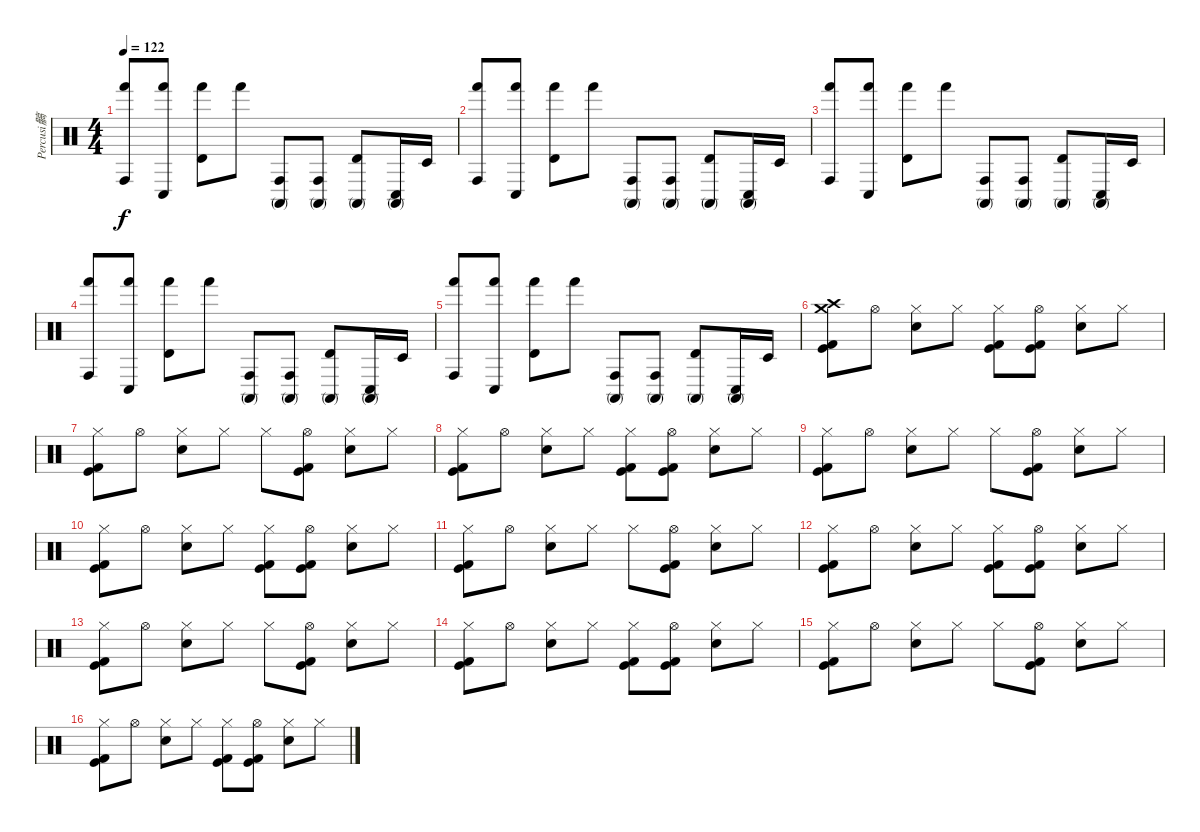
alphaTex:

\track ("Percusi髇" "Percusi髇") {instrument percussion}
\staff {score}
\articulation defaults
\ts (4 4)
\tempo 122
\clef neutral
\ks c
("Hand (hit)" "Conga high (hit)").8{dy f} ("Hand (hit)" "Conga low (hit)").8 ("Hand (hit)" "Timbale high (hit)").8 "Hand (hit)".8 ("Conga high (mute)" "Conga high (hit)").8 ("Conga high (mute)" "Conga high (hit)").8 ("Conga high (mute)" "Timbale high (hit)").8 ("Conga high (mute)" "Conga low (hit)").16 "Timbale low (hit)".16 |
("Hand (hit)" "Conga high (hit)").8 ("Hand (hit)" "Conga low (hit)").8 ("Hand (hit)" "Timbale high (hit)").8 "Hand (hit)".8 ("Conga high (mute)" "Conga high (hit)").8 ("Conga high (mute)" "Conga high (hit)").8 ("Conga high (mute)" "Timbale high (hit)").8 ("Conga high (mute)" "Conga low (hit)").16 "Timbale low (hit)".16 |
("Hand (hit)" "Conga high (hit)").8 ("Hand (hit)" "Conga low (hit)").8 ("Hand (hit)" "Timbale high (hit)").8 "Hand (hit)".8 ("Conga high (mute)" "Conga high (hit)").8 ("Conga high (mute)" "Conga high (hit)").8 ("Conga high (mute)" "Timbale high (hit)").8 ("Conga high (mute)" "Conga low (hit)").16 "Timbale low (hit)".16 |
("Hand (hit)" "Conga high (hit)").8 ("Hand (hit)" "Conga low (hit)").8 ("Hand (hit)" "Timbale high (hit)").8 "Hand (hit)".8 ("Conga high (mute)" "Conga high (hit)").8 ("Conga high (mute)" "Conga high (hit)").8 ("Conga high (mute)" "Timbale high (hit)").8 ("Conga high (mute)" "Conga low (hit)").16 "Timbale low (hit)".16 |
("Hand (hit)" "Conga high (hit)").8 ("Hand (hit)" "Conga low (hit)").8 ("Hand (hit)" "Timbale high (hit)").8 "Hand (hit)".8 ("Conga high (mute)" "Conga high (hit)").8 ("Conga high (mute)" "Conga high (hit)").8 ("Conga high (mute)" "Timbale high (hit)").8 ("Conga high (mute)" "Conga low (hit)").16 "Timbale low (hit)".16 |
("Crash high (hit)" "Crash medium (hit)" "Kick (hit) 2" "Kick (hit)").8{volume 14} "Hi-Hat (open)".8 ("Hi-Hat (closed)" "Electric Snare (hit)").8 "Hi-Hat (closed)".8 ("Hi-Hat (closed)" "Kick (hit) 2" "Kick (hit)").8 ("Hi-Hat (open)" "Kick (hit) 2" "Kick (hit)").8 ("Hi-Hat (closed)" "Electric Snare (hit)").8 "Hi-Hat (closed)".8 |
("Hi-Hat (closed)" "Kick (hit) 2" "Kick (hit)").8 "Hi-Hat (open)".8 ("Hi-Hat (closed)" "Electric Snare (hit)").8 "Hi-Hat (closed)".8 "Hi-Hat (closed)".8 ("Hi-Hat (open)" "Kick (hit) 2" "Kick (hit)").8 ("Hi-Hat (closed)" "Electric Snare (hit)").8 "Hi-Hat (closed)".8 |
("Hi-Hat (closed)" "Kick (hit) 2" "Kick (hit)").8 "Hi-Hat (open)".8 ("Hi-Hat (closed)" "Electric Snare (hit)").8 "Hi-Hat (closed)".8 ("Hi-Hat (closed)" "Kick (hit) 2" "Kick (hit)").8 ("Hi-Hat (open)" "Kick (hit) 2" "Kick (hit)").8 ("Hi-Hat (closed)" "Electric Snare (hit)").8 "Hi-Hat (closed)".8 |
("Hi-Hat (closed)" "Kick (hit) 2" "Kick (hit)").8 "Hi-Hat (open)".8 ("Hi-Hat (closed)" "Electric Snare (hit)").8 "Hi-Hat (closed)".8 "Hi-Hat (closed)".8 ("Hi-Hat (open)" "Kick (hit) 2" "Kick (hit)").8 ("Hi-Hat (closed)" "Electric Snare (hit)").8 "Hi-Hat (closed)".8 |
("Hi-Hat (closed)" "Kick (hit) 2" "Kick (hit)").8 "Hi-Hat (open)".8 ("Hi-Hat (closed)" "Electric Snare (hit)").8 "Hi-Hat (closed)".8 ("Hi-Hat (closed)" "Kick (hit) 2" "Kick (hit)").8 ("Hi-Hat (open)" "Kick (hit) 2" "Kick (hit)").8 ("Hi-Hat (closed)" "Electric Snare (hit)").8 "Hi-Hat (closed)".8 |
("Hi-Hat (closed)" "Kick (hit) 2" "Kick (hit)").8 "Hi-Hat (open)".8 ("Hi-Hat (closed)" "Electric Snare (hit)").8 "Hi-Hat (closed)".8 "Hi-Hat (closed)".8 ("Hi-Hat (open)" "Kick (hit) 2" "Kick (hit)").8 ("Hi-Hat (closed)" "Electric Snare (hit)").8 "Hi-Hat (closed)".8 |
("Hi-Hat (closed)" "Kick (hit) 2" "Kick (hit)").8 "Hi-Hat (open)".8 ("Hi-Hat (closed)" "Electric Snare (hit)").8 "Hi-Hat (closed)".8 ("Hi-Hat (closed)" "Kick (hit) 2" "Kick (hit)").8 ("Hi-Hat (open)" "Kick (hit) 2" "Kick (hit)").8 ("Hi-Hat (closed)" "Electric Snare (hit)").8 "Hi-Hat (closed)".8 |
("Hi-Hat (closed)" "Kick (hit) 2" "Kick (hit)").8 "Hi-Hat (open)".8 ("Hi-Hat (closed)" "Electric Snare (hit)").8 "Hi-Hat (closed)".8 "Hi-Hat (closed)".8 ("Hi-Hat (open)" "Kick (hit) 2" "Kick (hit)").8 ("Hi-Hat (closed)" "Electric Snare (hit)").8 "Hi-Hat (closed)".8 |
("Hi-Hat (closed)" "Kick (hit) 2" "Kick (hit)").8 "Hi-Hat (open)".8 ("Hi-Hat (closed)" "Electric Snare (hit)").8 "Hi-Hat (closed)".8 ("Hi-Hat (closed)" "Kick (hit) 2" "Kick (hit)").8 ("Hi-Hat (open)" "Kick (hit) 2" "Kick (hit)").8 ("Hi-Hat (closed)" "Electric Snare (hit)").8 "Hi-Hat (closed)".8 |
("Hi-Hat (closed)" "Kick (hit) 2" "Kick (hit)").8 "Hi-Hat (open)".8 ("Hi-Hat (closed)" "Electric Snare (hit)").8 "Hi-Hat (closed)".8 "Hi-Hat (closed)".8 ("Hi-Hat (open)" "Kick (hit) 2" "Kick (hit)").8 ("Hi-Hat (closed)" "Electric Snare (hit)").8 "Hi-Hat (closed)".8 |
("Hi-Hat (closed)" "Kick (hit) 2" "Kick (hit)").8 "Hi-Hat (open)".8 ("Hi-Hat (closed)" "Electric Snare (hit)").8 "Hi-Hat (closed)".8 ("Hi-Hat (closed)" "Kick (hit) 2" "Kick (hit)").8 ("Hi-Hat (open)" "Kick (hit) 2" "Kick (hit)").8 ("Hi-Hat (closed)" "Electric Snare (hit)").8 "Hi-Hat (closed)".8
